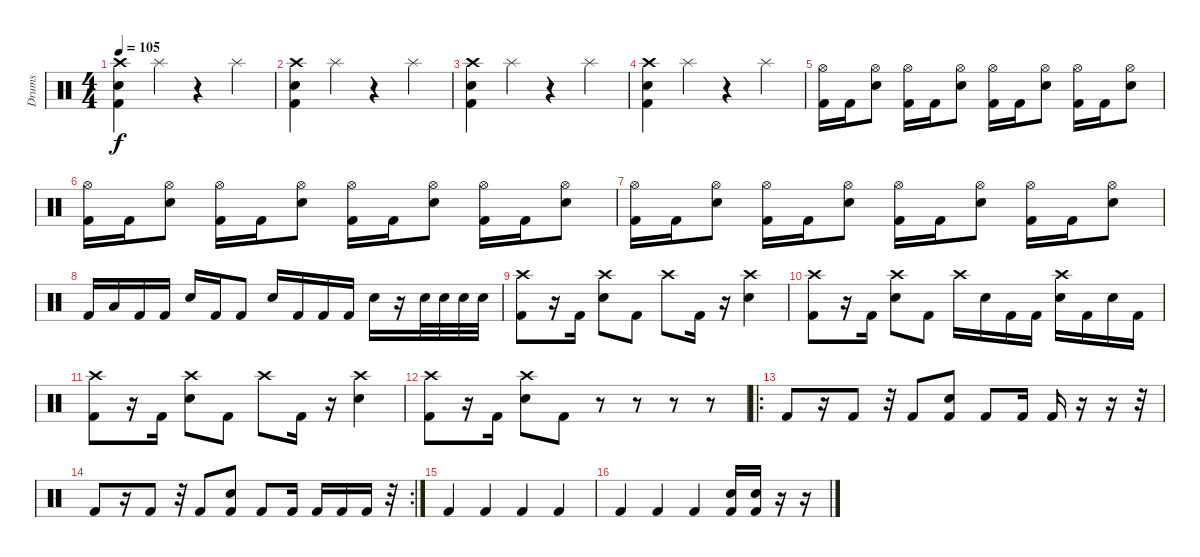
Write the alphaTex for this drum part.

\track ("Drums" "Drums") {instrument percussion}
\staff {score}
\articulation defaults
\ts (4 4)
\tempo 105
\clef neutral
\ks c
("Crash high (hit)" "Electric Snare (hit)" "Kick (hit) 2").4{dy f} "Splash (hit)".4 r.4 "Splash (hit)".4 |
("Crash high (hit)" "Electric Snare (hit)" "Kick (hit) 2").4 "Splash (hit)".4 r.4 "Splash (hit)".4 |
("Crash high (hit)" "Electric Snare (hit)" "Kick (hit) 2").4 "Splash (hit)".4 r.4 "Splash (hit)".4 |
("Crash high (hit)" "Electric Snare (hit)" "Kick (hit) 2").4 "Splash (hit)".4 r.4 "Splash (hit)".4 |
("Hi-Hat (open)" "Kick (hit) 2").16 "Kick (hit) 2".16 ("Hi-Hat (open)" "Electric Snare (hit)").8 ("Hi-Hat (open)" "Kick (hit) 2").16 "Kick (hit) 2".16 ("Hi-Hat (open)" "Electric Snare (hit)").8 ("Hi-Hat (open)" "Kick (hit) 2").16 "Kick (hit) 2".16 ("Hi-Hat (open)" "Electric Snare (hit)").8 ("Hi-Hat (open)" "Kick (hit) 2").16 "Kick (hit) 2".16 ("Hi-Hat (open)" "Electric Snare (hit)").8 |
("Hi-Hat (open)" "Kick (hit) 2").16 "Kick (hit) 2".16 ("Hi-Hat (open)" "Electric Snare (hit)").8 ("Hi-Hat (open)" "Kick (hit) 2").16 "Kick (hit) 2".16 ("Hi-Hat (open)" "Electric Snare (hit)").8 ("Hi-Hat (open)" "Kick (hit) 2").16 "Kick (hit) 2".16 ("Hi-Hat (open)" "Electric Snare (hit)").8 ("Hi-Hat (open)" "Kick (hit) 2").16 "Kick (hit) 2".16 ("Hi-Hat (open)" "Electric Snare (hit)").8 |
("Hi-Hat (open)" "Kick (hit) 2").16 "Kick (hit) 2".16 ("Hi-Hat (open)" "Electric Snare (hit)").8 ("Hi-Hat (open)" "Kick (hit) 2").16 "Kick (hit) 2".16 ("Hi-Hat (open)" "Electric Snare (hit)").8 ("Hi-Hat (open)" "Kick (hit) 2").16 "Kick (hit) 2".16 ("Hi-Hat (open)" "Electric Snare (hit)").8 ("Hi-Hat (open)" "Kick (hit) 2").16 "Kick (hit) 2".16 ("Hi-Hat (open)" "Electric Snare (hit)").8 |
"Kick (hit) 2".16 "Low Tom (hit)".16 "Kick (hit) 2".16 "Kick (hit) 2".16 "Electric Snare (hit)".16 "Kick (hit) 2".16 "Kick (hit) 2".8 "Electric Snare (hit)".16 "Kick (hit) 2".16 "Kick (hit) 2".16 "Kick (hit) 2".16 "Electric Snare (hit)".16 r.16 "Electric Snare (hit)".32 "Electric Snare (hit)".32 "Electric Snare (hit)".32 "Electric Snare (hit)".32 |
("Crash high (hit)" "Kick (hit) 2").8 r.16 "Kick (hit) 2".16 ("Crash high (hit)" "Electric Snare (hit)").8 "Kick (hit) 2".8 "Crash high (hit)".8 "Kick (hit) 2".16 r.16 ("Crash high (hit)" "Electric Snare (hit)").4 |
("Crash high (hit)" "Kick (hit) 2").8 r.16 "Kick (hit) 2".16 ("Crash high (hit)" "Electric Snare (hit)").8 "Kick (hit) 2".8 "Crash high (hit)".16 "Electric Snare (hit)".16 "Kick (hit) 2".16 "Kick (hit) 2".16 ("Crash high (hit)" "Electric Snare (hit)").16 "Kick (hit) 2".16 "Electric Snare (hit)".16 "Kick (hit) 2".16 |
("Crash high (hit)" "Kick (hit) 2").8 r.16 "Kick (hit) 2".16 ("Crash high (hit)" "Electric Snare (hit)").8 "Kick (hit) 2".8 "Crash high (hit)".8 "Kick (hit) 2".16 r.16 ("Crash high (hit)" "Electric Snare (hit)").4 |
("Crash high (hit)" "Kick (hit) 2").8 r.16 "Kick (hit) 2".16 ("Crash high (hit)" "Electric Snare (hit)").8 "Kick (hit) 2".8 r.8 r.8 r.8 r.8 |
\ro "Kick (hit) 2".8
r.16 "Kick (hit) 2".8 r.32 "Kick (hit) 2".8 ("Electric Snare (hit)" "Kick (hit) 2").8 "Kick (hit) 2".8 "Kick (hit) 2".16 "Kick (hit) 2".16 r.16 r.16 r.32 |
\rc 2 "Kick (hit) 2".8
r.16 "Kick (hit) 2".8 r.32 "Kick (hit) 2".8 ("Electric Snare (hit)" "Kick (hit) 2").8 "Kick (hit) 2".8 "Kick (hit) 2".16 "Kick (hit) 2".16 "Kick (hit) 2".16 "Kick (hit) 2".16 r.32 |
"Kick (hit) 2".4 "Kick (hit) 2".4 "Kick (hit) 2".4 "Kick (hit) 2".4 |
"Kick (hit) 2".4 "Kick (hit) 2".4 "Kick (hit) 2".4 ("Electric Snare (hit)" "Kick (hit) 2").16 ("Electric Snare (hit)" "Kick (hit) 2").16 r.16 r.16
